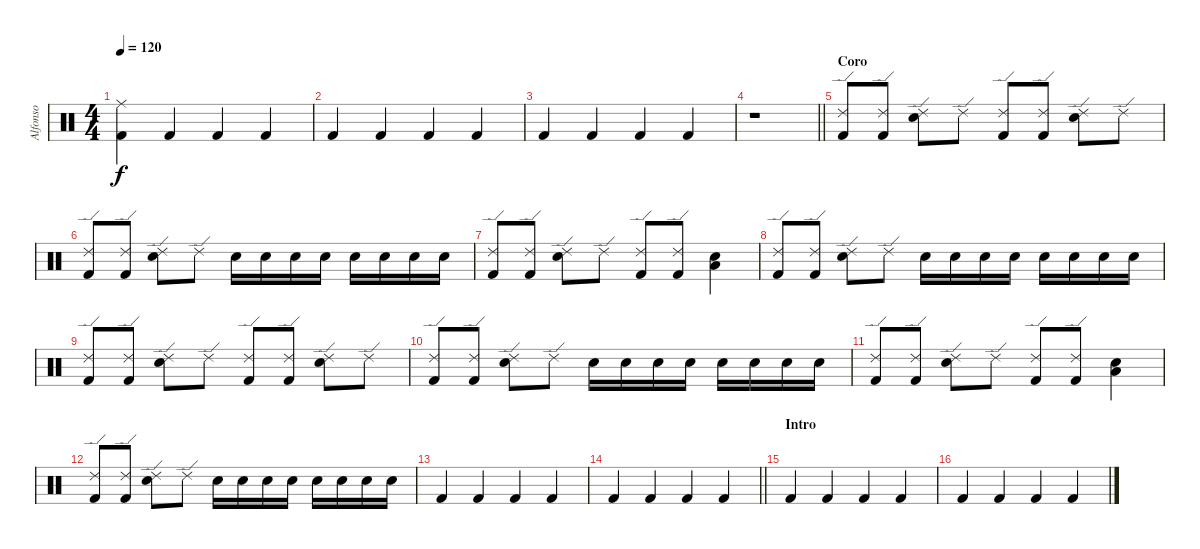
\track ("Alfonso" "Alfonso") {instrument percussion}
\staff {score}
\articulation defaults
\ts (4 4)
\tempo 120
\clef neutral
\ks c
("Kick (hit) 2" "Ride (middle)").4{dy f} "Kick (hit) 2".4 "Kick (hit) 2".4 "Kick (hit) 2".4 |
"Kick (hit) 2".4 "Kick (hit) 2".4 "Kick (hit) 2".4 "Kick (hit) 2".4 |
"Kick (hit) 2".4 "Kick (hit) 2".4 "Kick (hit) 2".4 "Kick (hit) 2".4 |
\barLineRight lightlight
r.1 |
\section ("" "Coro")
("Ride (edge) 2" "Kick (hit) 2").8 ("Ride (edge) 2" "Kick (hit) 2").8 ("Ride (edge) 2" "Electric Snare (hit)").8 "Ride (edge) 2".8 ("Ride (edge) 2" "Kick (hit) 2").8 ("Ride (edge) 2" "Kick (hit) 2").8 ("Ride (edge) 2" "Electric Snare (hit)").8 "Ride (edge) 2".8 |
("Ride (edge) 2" "Kick (hit) 2").8 ("Ride (edge) 2" "Kick (hit) 2").8 ("Ride (edge) 2" "Electric Snare (hit)").8 "Ride (edge) 2".8 "Electric Snare (hit)".16 "Electric Snare (hit)".16 "Electric Snare (hit)".16 "Electric Snare (hit)".16 "Electric Snare (hit)".16 "Electric Snare (hit)".16 "Electric Snare (hit)".16 "Electric Snare (hit)".16 |
("Ride (edge) 2" "Kick (hit) 2").8 ("Ride (edge) 2" "Kick (hit) 2").8 ("Ride (edge) 2" "Electric Snare (hit)").8 "Ride (edge) 2".8 ("Ride (edge) 2" "Kick (hit) 2").8 ("Ride (edge) 2" "Kick (hit) 2").8 ("Low Floor Tom (hit)" "Electric Snare (hit)").4 |
("Ride (edge) 2" "Kick (hit) 2").8 ("Ride (edge) 2" "Kick (hit) 2").8 ("Ride (edge) 2" "Electric Snare (hit)").8 "Ride (edge) 2".8 "Electric Snare (hit)".16 "Electric Snare (hit)".16 "Electric Snare (hit)".16 "Electric Snare (hit)".16 "Electric Snare (hit)".16 "Electric Snare (hit)".16 "Electric Snare (hit)".16 "Electric Snare (hit)".16 |
("Ride (edge) 2" "Kick (hit) 2").8 ("Ride (edge) 2" "Kick (hit) 2").8 ("Ride (edge) 2" "Electric Snare (hit)").8 "Ride (edge) 2".8 ("Ride (edge) 2" "Kick (hit) 2").8 ("Ride (edge) 2" "Kick (hit) 2").8 ("Ride (edge) 2" "Electric Snare (hit)").8 "Ride (edge) 2".8 |
("Ride (edge) 2" "Kick (hit) 2").8 ("Ride (edge) 2" "Kick (hit) 2").8 ("Ride (edge) 2" "Electric Snare (hit)").8 "Ride (edge) 2".8 "Electric Snare (hit)".16 "Electric Snare (hit)".16 "Electric Snare (hit)".16 "Electric Snare (hit)".16 "Electric Snare (hit)".16 "Electric Snare (hit)".16 "Electric Snare (hit)".16 "Electric Snare (hit)".16 |
("Ride (edge) 2" "Kick (hit) 2").8 ("Ride (edge) 2" "Kick (hit) 2").8 ("Ride (edge) 2" "Electric Snare (hit)").8 "Ride (edge) 2".8 ("Ride (edge) 2" "Kick (hit) 2").8 ("Ride (edge) 2" "Kick (hit) 2").8 ("Low Floor Tom (hit)" "Electric Snare (hit)").4 |
("Ride (edge) 2" "Kick (hit) 2").8 ("Ride (edge) 2" "Kick (hit) 2").8 ("Ride (edge) 2" "Electric Snare (hit)").8 "Ride (edge) 2".8 "Electric Snare (hit)".16 "Electric Snare (hit)".16 "Electric Snare (hit)".16 "Electric Snare (hit)".16 "Electric Snare (hit)".16 "Electric Snare (hit)".16 "Electric Snare (hit)".16 "Electric Snare (hit)".16 |
"Kick (hit) 2".4 "Kick (hit) 2".4 "Kick (hit) 2".4 "Kick (hit) 2".4 |
\barLineRight lightlight "Kick (hit) 2".4 "Kick (hit) 2".4 "Kick (hit) 2".4 "Kick (hit) 2".4
|
\section ("" "Intro")
"Kick (hit) 2".4 "Kick (hit) 2".4 "Kick (hit) 2".4 "Kick (hit) 2".4 |
"Kick (hit) 2".4 "Kick (hit) 2".4 "Kick (hit) 2".4 "Kick (hit) 2".4
